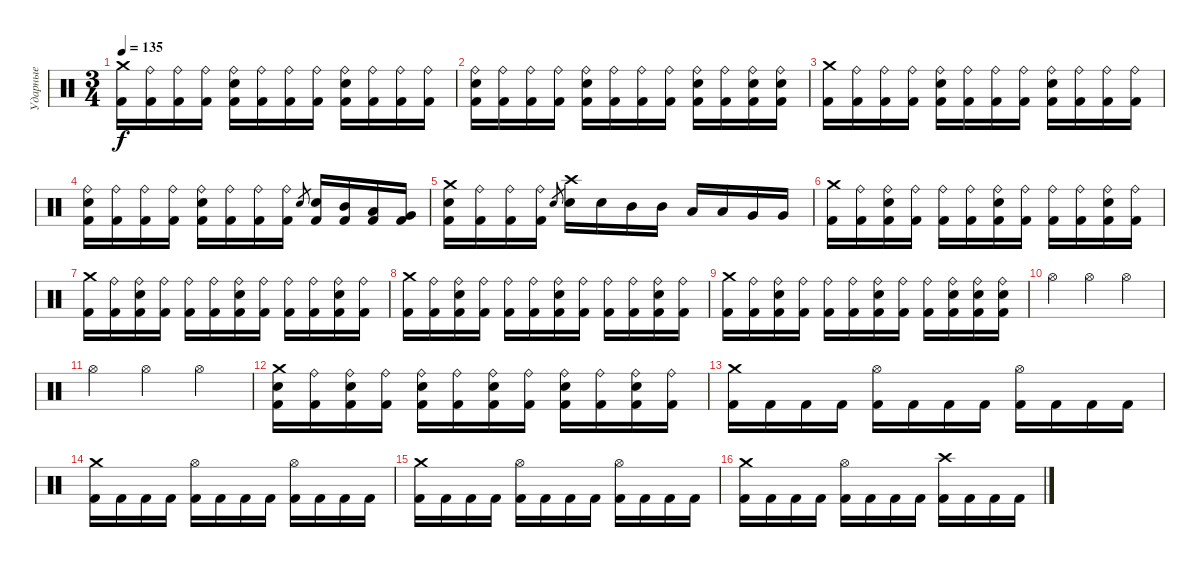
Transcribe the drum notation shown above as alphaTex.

\track ("Ударные" "Ударные") {instrument percussion}
\staff {score}
\articulation defaults
\ts (3 4)
\tempo 135
\clef neutral
\ks c
("Crash medium (hit)" "Kick (hit) 2").16{dy f} ("Ride (bell)" "Kick (hit) 2").16 ("Ride (bell)" "Kick (hit) 2").16 ("Ride (bell)" "Kick (hit) 2").16 ("Ride (bell)" "Electric Snare (hit)" "Kick (hit) 2").16 ("Ride (bell)" "Kick (hit) 2").16 ("Ride (bell)" "Kick (hit) 2").16 ("Ride (bell)" "Kick (hit) 2").16 ("Ride (bell)" "Electric Snare (hit)" "Kick (hit) 2").16 ("Ride (bell)" "Kick (hit) 2").16 ("Ride (bell)" "Kick (hit) 2").16 ("Ride (bell)" "Kick (hit) 2").16 |
("Ride (bell)" "Electric Snare (hit)" "Kick (hit) 2").16 ("Ride (bell)" "Kick (hit) 2").16 ("Ride (bell)" "Kick (hit) 2").16 ("Ride (bell)" "Kick (hit) 2").16 ("Ride (bell)" "Electric Snare (hit)" "Kick (hit) 2").16 ("Ride (bell)" "Kick (hit) 2").16 ("Ride (bell)" "Kick (hit) 2").16 ("Ride (bell)" "Kick (hit) 2").16 ("Ride (bell)" "Electric Snare (hit)" "Kick (hit) 2").16 ("Ride (bell)" "Kick (hit) 2").16 ("Ride (bell)" "Electric Snare (hit)" "Kick (hit) 2").16 ("Ride (bell)" "Electric Snare (hit)" "Kick (hit) 2").16 |
("Crash medium (hit)" "Kick (hit) 2").16 ("Ride (bell)" "Kick (hit) 2").16 ("Ride (bell)" "Kick (hit) 2").16 ("Ride (bell)" "Kick (hit) 2").16 ("Ride (bell)" "Electric Snare (hit)" "Kick (hit) 2").16 ("Ride (bell)" "Kick (hit) 2").16 ("Ride (bell)" "Kick (hit) 2").16 ("Ride (bell)" "Kick (hit) 2").16 ("Ride (bell)" "Electric Snare (hit)" "Kick (hit) 2").16 ("Ride (bell)" "Kick (hit) 2").16 ("Ride (bell)" "Kick (hit) 2").16 ("Ride (bell)" "Kick (hit) 2").16 |
("Ride (bell)" "Electric Snare (hit)" "Kick (hit) 2").16 ("Ride (bell)" "Kick (hit) 2").16 ("Ride (bell)" "Kick (hit) 2").16 ("Ride (bell)" "Kick (hit) 2").16 ("Ride (bell)" "Electric Snare (hit)" "Kick (hit) 2").16 ("Ride (bell)" "Kick (hit) 2").16 ("Ride (bell)" "Kick (hit) 2").16 ("Ride (bell)" "Kick (hit) 2").16 "Electric Snare (hit)".8{gr} ("Electric Snare (hit)" "Kick (hit) 2").16 ("Mid Tom (hit)" "Kick (hit) 2").16 ("Low Tom (hit)" "Kick (hit) 2").16 ("Very Low Tom (hit)" "Kick (hit) 2").16 |
("Crash medium (hit)" "Electric Snare (hit)" "Kick (hit) 2").16 ("Ride (bell)" "Kick (hit) 2").16 ("Ride (bell)" "Kick (hit) 2").16 ("Ride (bell)" "Kick (hit) 2").16 "Electric Snare (hit)".8{gr} ("Crash high (hit)" "Electric Snare (hit)").16 "Electric Snare (hit)".16 "Mid Tom (hit)".16 "Mid Tom (hit)".16 "Low Tom (hit)".16 "Low Tom (hit)".16 "Very Low Tom (hit)".16 "Very Low Tom (hit)".16 |
("Crash medium (hit)" "Kick (hit) 2").16 ("Ride (bell)" "Kick (hit) 2").16 ("Ride (bell)" "Electric Snare (hit)" "Kick (hit) 2").16 ("Ride (bell)" "Kick (hit) 2").16 ("Ride (bell)" "Kick (hit) 2").16 ("Ride (bell)" "Kick (hit) 2").16 ("Ride (bell)" "Electric Snare (hit)" "Kick (hit) 2").16 ("Ride (bell)" "Kick (hit) 2").16 ("Ride (bell)" "Kick (hit) 2").16 ("Ride (bell)" "Kick (hit) 2").16 ("Ride (bell)" "Electric Snare (hit)" "Kick (hit) 2").16 ("Ride (bell)" "Kick (hit) 2").16 |
("Crash medium (hit)" "Kick (hit) 2").16 ("Ride (bell)" "Kick (hit) 2").16 ("Ride (bell)" "Electric Snare (hit)" "Kick (hit) 2").16 ("Ride (bell)" "Kick (hit) 2").16 ("Ride (bell)" "Kick (hit) 2").16 ("Ride (bell)" "Kick (hit) 2").16 ("Ride (bell)" "Electric Snare (hit)" "Kick (hit) 2").16 ("Ride (bell)" "Kick (hit) 2").16 ("Ride (bell)" "Kick (hit) 2").16 ("Ride (bell)" "Kick (hit) 2").16 ("Ride (bell)" "Electric Snare (hit)" "Kick (hit) 2").16 ("Ride (bell)" "Kick (hit) 2").16 |
("Crash medium (hit)" "Kick (hit) 2").16 ("Ride (bell)" "Kick (hit) 2").16 ("Ride (bell)" "Electric Snare (hit)" "Kick (hit) 2").16 ("Ride (bell)" "Kick (hit) 2").16 ("Ride (bell)" "Kick (hit) 2").16 ("Ride (bell)" "Kick (hit) 2").16 ("Ride (bell)" "Electric Snare (hit)" "Kick (hit) 2").16 ("Ride (bell)" "Kick (hit) 2").16 ("Ride (bell)" "Kick (hit) 2").16 ("Ride (bell)" "Kick (hit) 2").16 ("Ride (bell)" "Electric Snare (hit)" "Kick (hit) 2").16 ("Ride (bell)" "Kick (hit) 2").16 |
("Crash medium (hit)" "Kick (hit) 2").16 ("Ride (bell)" "Kick (hit) 2").16 ("Ride (bell)" "Electric Snare (hit)" "Kick (hit) 2").16 ("Ride (bell)" "Kick (hit) 2").16 ("Ride (bell)" "Kick (hit) 2").16 ("Ride (bell)" "Kick (hit) 2").16 ("Ride (bell)" "Electric Snare (hit)" "Kick (hit) 2").16 ("Ride (bell)" "Kick (hit) 2").16 ("Ride (bell)" "Kick (hit) 2").16 ("Ride (bell)" "Electric Snare (hit)" "Kick (hit) 2").16 ("Ride (bell)" "Electric Snare (hit)" "Kick (hit) 2").16 ("Ride (bell)" "Electric Snare (hit)" "Kick (hit) 2").16 |
"Hi-Hat (open)".4 "Hi-Hat (open)".4 "Hi-Hat (open)".4 |
"Hi-Hat (open)".4 "Hi-Hat (open)".4 "Hi-Hat (open)".4 |
("Crash medium (hit)" "Electric Snare (hit)" "Kick (hit) 2").16 ("Ride (bell)" "Kick (hit) 2").16 ("Ride (bell)" "Electric Snare (hit)" "Kick (hit) 2").16 ("Ride (bell)" "Kick (hit) 2").16 ("Ride (bell)" "Electric Snare (hit)" "Kick (hit) 2").16 ("Ride (bell)" "Kick (hit) 2").16 ("Ride (bell)" "Electric Snare (hit)" "Kick (hit) 2").16 ("Ride (bell)" "Kick (hit) 2").16 ("Ride (bell)" "Electric Snare (hit)" "Kick (hit) 2").16 ("Ride (bell)" "Kick (hit) 2").16 ("Ride (bell)" "Electric Snare (hit)" "Kick (hit) 2").16 ("Ride (bell)" "Kick (hit) 2").16 |
("Crash medium (hit)" "Kick (hit) 2").16 "Kick (hit) 2".16 "Kick (hit) 2".16 "Kick (hit) 2".16 ("Hi-Hat (open)" "Kick (hit) 2").16 "Kick (hit) 2".16 "Kick (hit) 2".16 "Kick (hit) 2".16 ("Hi-Hat (open)" "Kick (hit) 2").16 "Kick (hit) 2".16 "Kick (hit) 2".16 "Kick (hit) 2".16 |
("Crash medium (hit)" "Kick (hit) 2").16 "Kick (hit) 2".16 "Kick (hit) 2".16 "Kick (hit) 2".16 ("Hi-Hat (open)" "Kick (hit) 2").16 "Kick (hit) 2".16 "Kick (hit) 2".16 "Kick (hit) 2".16 ("Hi-Hat (open)" "Kick (hit) 2").16 "Kick (hit) 2".16 "Kick (hit) 2".16 "Kick (hit) 2".16 |
("Crash medium (hit)" "Kick (hit) 2").16 "Kick (hit) 2".16 "Kick (hit) 2".16 "Kick (hit) 2".16 ("Hi-Hat (open)" "Kick (hit) 2").16 "Kick (hit) 2".16 "Kick (hit) 2".16 "Kick (hit) 2".16 ("Hi-Hat (open)" "Kick (hit) 2").16 "Kick (hit) 2".16 "Kick (hit) 2".16 "Kick (hit) 2".16 |
("Crash medium (hit)" "Kick (hit) 2").16 "Kick (hit) 2".16 "Kick (hit) 2".16 "Kick (hit) 2".16 ("Hi-Hat (open)" "Kick (hit) 2").16 "Kick (hit) 2".16 "Kick (hit) 2".16 "Kick (hit) 2".16 ("Crash high (hit)" "Kick (hit) 2").16 "Kick (hit) 2".16 "Kick (hit) 2".16 "Kick (hit) 2".16
